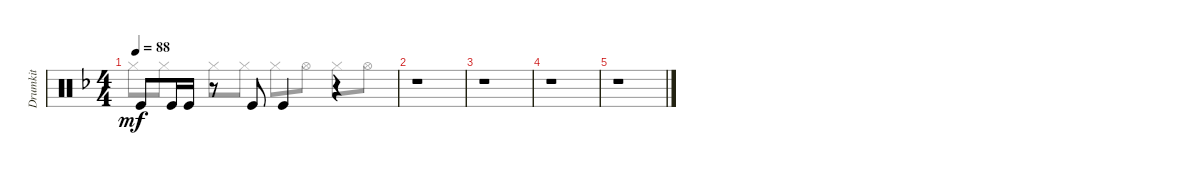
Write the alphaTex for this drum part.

\track ("Drumkit" "Drumkit") {instrument percussion}
\staff {score}
\articulation defaults
\voice
\ts (4 4)
\tempo 88
\clef neutral
\ks dminor "Kick (hit)".8{dy mf} "Kick (hit)".16 "Kick (hit)".16
r.8 "Kick (hit)".8 "Kick (hit)".4 r.4 |
r.1 |
r.1 |
r.1 |
r.1
\voice
\clef neutral
\ottava regular
\simile none
\ks dminor "Hi-Hat (closed)".8{dy mf} "Hi-Hat (closed)".8 "Hi-Hat (closed)".8 "Hi-Hat (closed)".8 "Hi-Hat (closed)".8 "Hi-Hat (open)".8 "Hi-Hat (closed)".8 "Hi-Hat (open)".8
|
|
|
|
